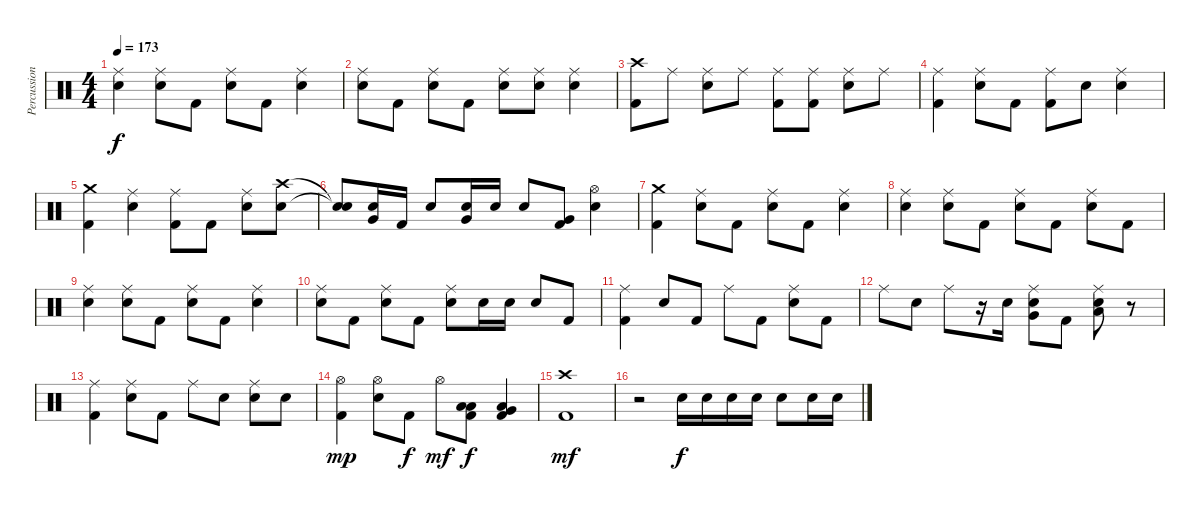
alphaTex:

\track ("Percussion" "Percussion") {instrument percussion}
\staff {score}
\articulation defaults
\ts (4 4)
\tempo 173
\clef neutral
\ks c
("Ride (middle)" "Electric Snare (hit)").4{dy f} ("Ride (middle)" "Electric Snare (hit)").8 "Kick (hit) 2".8 ("Ride (middle)" "Electric Snare (hit)").8 "Kick (hit) 2".8 ("Ride (middle)" "Electric Snare (hit)").4 |
("Ride (middle)" "Electric Snare (hit)").8 "Kick (hit) 2".8 ("Ride (middle)" "Electric Snare (hit)").8 "Kick (hit) 2".8 ("Ride (middle)" "Electric Snare (hit)").8 ("Ride (middle)" "Electric Snare (hit)").8 ("Ride (middle)" "Electric Snare (hit)").4 |
("Crash high (hit)" "Kick (hit) 2").8 "Ride (middle)".8 ("Ride (middle)" "Electric Snare (hit)").8 "Ride (middle)".8 ("Ride (middle)" "Kick (hit) 2").8 ("Ride (middle)" "Kick (hit) 2").8 ("Ride (middle)" "Electric Snare (hit)").8 "Ride (middle)".8 |
("Ride (middle)" "Kick (hit) 2").4 ("Ride (middle)" "Electric Snare (hit)").8 "Kick (hit) 2".8 ("Ride (middle)" "Kick (hit) 2").8 "Electric Snare (hit)".8 ("Ride (middle)" "Electric Snare (hit)").4 |
("Crash medium (hit)" "Kick (hit) 2").4 ("Ride (middle)" "Electric Snare (hit)").4 ("Ride (middle)" "Kick (hit) 2").8 "Kick (hit) 2".8 ("Ride (middle)" "Electric Snare (hit)").8 ("Crash high (hit)" "Electric Snare (hit)").8 |
("Snare (hit)"{t} "Snare (hit)"{t}).8 ("Very Low Tom (hit)" "Electric Snare (hit)").16 "Kick (hit) 2".16 "Electric Snare (hit)".8 ("Very Low Tom (hit)" "Electric Snare (hit)").16 "Electric Snare (hit)".16 "Electric Snare (hit)".8 ("Very Low Tom (hit)" "Kick (hit) 2").8 ("Hi-Hat (open)" "Electric Snare (hit)").4 |
("Crash medium (hit)" "Kick (hit) 2").4 ("Ride (middle)" "Electric Snare (hit)").8 "Kick (hit) 2".8 ("Ride (middle)" "Electric Snare (hit)").8 "Kick (hit) 2".8 ("Ride (middle)" "Electric Snare (hit)").4 |
("Ride (middle)" "Electric Snare (hit)").4 ("Ride (middle)" "Electric Snare (hit)").8 "Kick (hit) 2".8 ("Ride (middle)" "Electric Snare (hit)").8 "Kick (hit) 2".8 ("Ride (middle)" "Electric Snare (hit)").8 "Kick (hit) 2".8 |
("Ride (middle)" "Electric Snare (hit)").4 ("Ride (middle)" "Electric Snare (hit)").8 "Kick (hit) 2".8 ("Ride (middle)" "Electric Snare (hit)").8 "Kick (hit) 2".8 ("Ride (middle)" "Electric Snare (hit)").4 |
("Ride (middle)" "Electric Snare (hit)").8 "Kick (hit) 2".8 ("Ride (middle)" "Electric Snare (hit)").8 "Kick (hit) 2".8 ("Ride (middle)" "Electric Snare (hit)").8 "Electric Snare (hit)".16 "Electric Snare (hit)".16 "Electric Snare (hit)".8 "Kick (hit) 2".8 |
("Ride (middle)" "Kick (hit) 2").4 "Electric Snare (hit)".8 "Kick (hit) 2".8 "Ride (middle)".8 "Kick (hit) 2".8 ("Ride (middle)" "Electric Snare (hit)").8 "Kick (hit) 2".8 |
"Ride (middle)".8 "Electric Snare (hit)".8 "Ride (middle)".8 r.16 "Electric Snare (hit)".16 ("Ride (middle)" "Very Low Tom (hit)" "Electric Snare (hit)").8 "Kick (hit) 2".8 ("Ride (middle)" "Low Floor Tom (hit)" "Electric Snare (hit)").8 r.8 |
("Ride (middle)" "Kick (hit) 2").4 ("Ride (middle)" "Electric Snare (hit)").8 "Kick (hit) 2".8 "Ride (middle)".8 "Electric Snare (hit)".8 ("Ride (middle)" "Electric Snare (hit)").8 "Electric Snare (hit)".8 |
("Hi-Hat (open)" "Kick (hit) 2").4{dy mp} ("Hi-Hat (open)" "Electric Snare (hit)").8 "Kick (hit) 2".8{dy f} "Hi-Hat (open)".8{dy mf} ("Low Tom (hit)" "Low Tom (hit)" "Kick (hit) 2").8{dy f} ("Low Floor Tom (hit)" "Very Low Tom (hit)" "Kick (hit) 2").4 |
("Crash high (hit)" "Kick (hit) 2").1{dy mf} |
r.2 "Electric Snare (hit)".16{dy f} "Electric Snare (hit)".16 "Electric Snare (hit)".16 "Electric Snare (hit)".16 "Electric Snare (hit)".8 "Electric Snare (hit)".16 "Electric Snare (hit)".16
